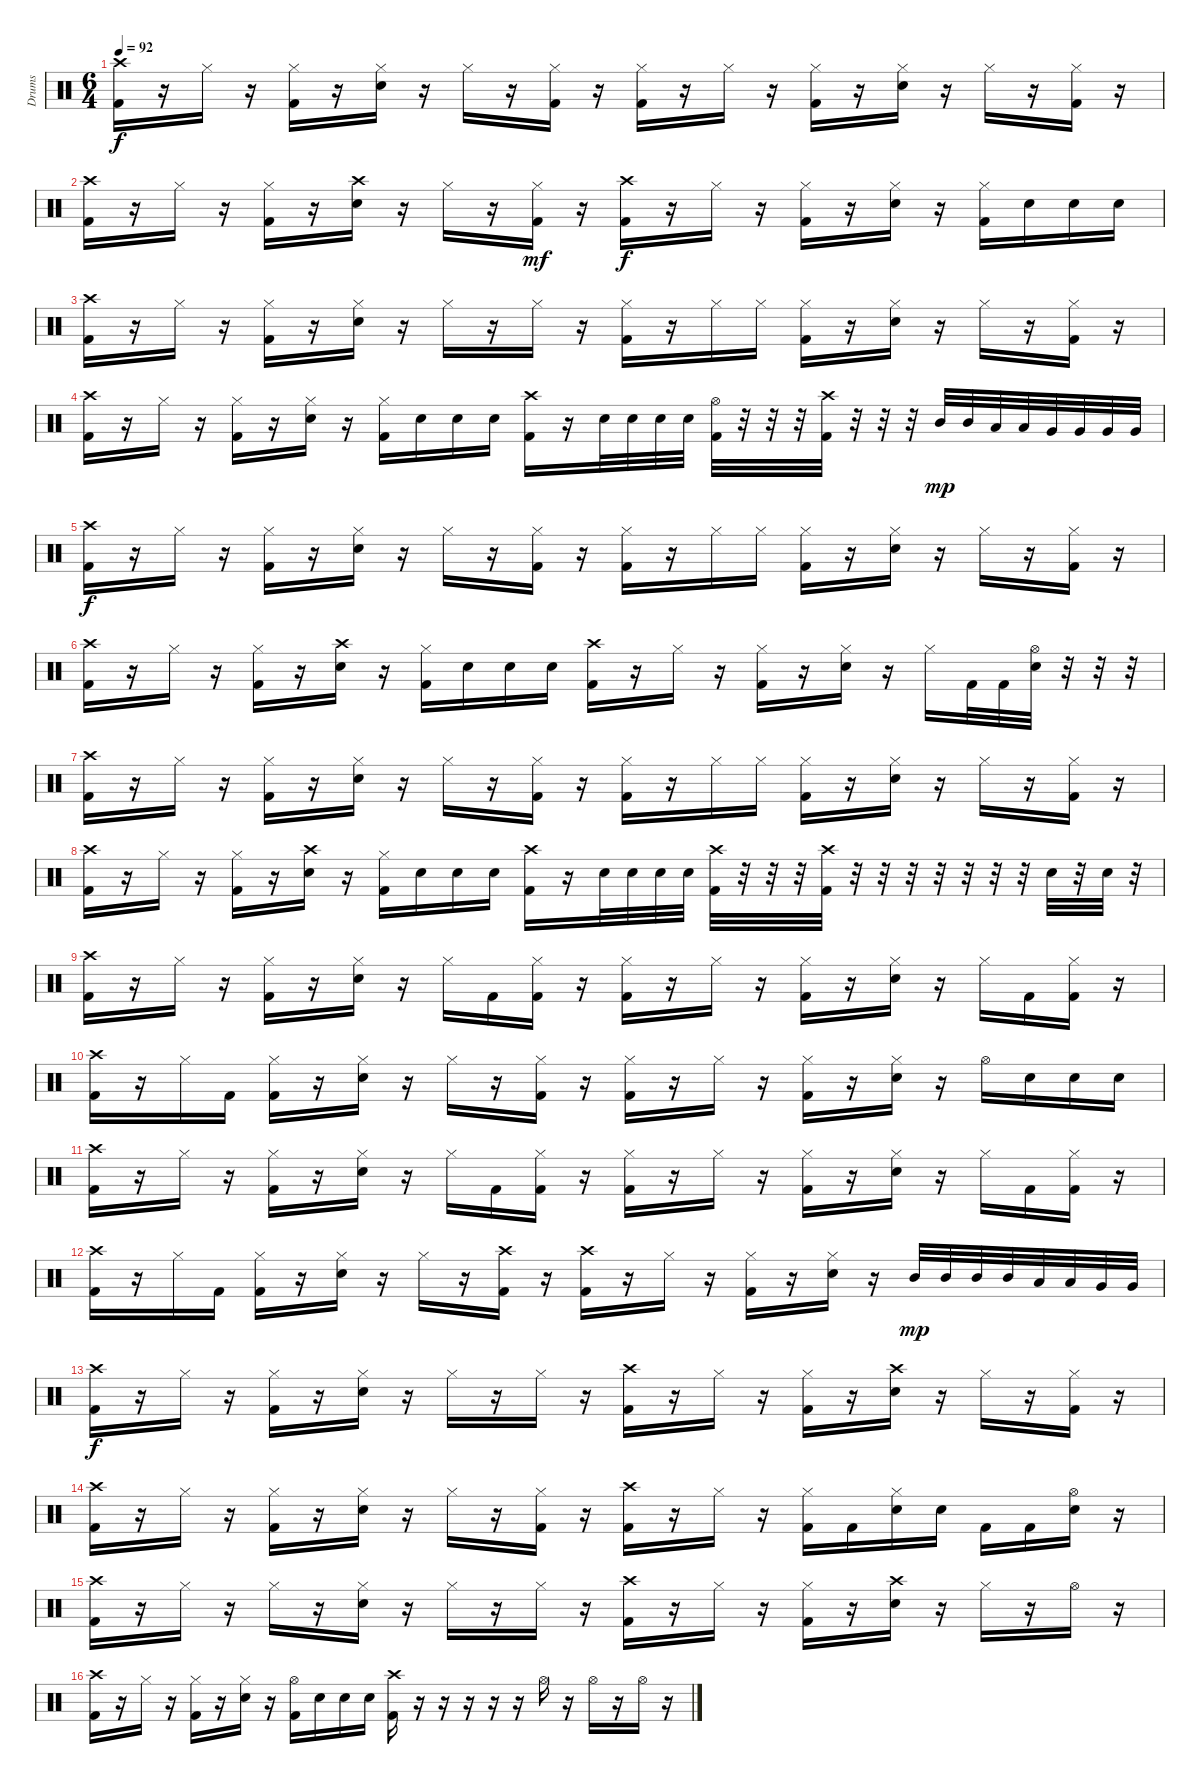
\track ("Drums" "Drums") {instrument percussion}
\staff {score}
\articulation defaults
\ts (6 4)
\tempo 92
\clef neutral
\ks c
("Crash high (hit)" "Kick (hit) 2").16{dy f} r.16 "Hi-Hat (closed)".16 r.16 ("Hi-Hat (closed)" "Kick (hit) 2").16 r.16 ("Hi-Hat (closed)" "Electric Snare (hit)").16 r.16 "Hi-Hat (closed)".16 r.16 ("Hi-Hat (closed)" "Kick (hit) 2").16 r.16 ("Hi-Hat (closed)" "Kick (hit) 2").16 r.16 "Hi-Hat (closed)".16 r.16 ("Hi-Hat (closed)" "Kick (hit) 2").16 r.16 ("Hi-Hat (closed)" "Electric Snare (hit)").16 r.16 "Hi-Hat (closed)".16 r.16 ("Hi-Hat (closed)" "Kick (hit) 2").16 r.16 |
("Crash high (hit)" "Kick (hit) 2").16 r.16 "Hi-Hat (closed)".16 r.16 ("Hi-Hat (closed)" "Kick (hit) 2").16 r.16 ("Crash high (hit)" "Electric Snare (hit)").16 r.16 "Hi-Hat (closed)".16 r.16 ("Hi-Hat (closed)" "Kick (hit) 2").16{dy mf} r.16 ("Crash high (hit)" "Kick (hit) 2").16{dy f} r.16 "Hi-Hat (closed)".16 r.16 ("Hi-Hat (closed)" "Kick (hit) 2").16 r.16 ("Hi-Hat (closed)" "Electric Snare (hit)").16 r.16 ("Hi-Hat (closed)" "Kick (hit) 2").16 "Electric Snare (hit)".16 "Electric Snare (hit)".16 "Electric Snare (hit)".16 |
("Crash high (hit)" "Kick (hit) 2").16 r.16 "Hi-Hat (closed)".16 r.16 ("Hi-Hat (closed)" "Kick (hit) 2").16 r.16 ("Hi-Hat (closed)" "Electric Snare (hit)").16 r.16 "Hi-Hat (closed)".16 r.16 "Hi-Hat (closed)".16 r.16 ("Hi-Hat (closed)" "Kick (hit) 2").16 r.16 "Hi-Hat (closed)".16 "Hi-Hat (closed)".16 ("Hi-Hat (closed)" "Kick (hit) 2").16 r.16 ("Hi-Hat (closed)" "Electric Snare (hit)").16 r.16 "Hi-Hat (closed)".16 r.16 ("Hi-Hat (closed)" "Kick (hit) 2").16 r.16 |
("Crash high (hit)" "Kick (hit) 2").16 r.16 "Hi-Hat (closed)".16 r.16 ("Hi-Hat (closed)" "Kick (hit) 2").16 r.16 ("Hi-Hat (closed)" "Electric Snare (hit)").16 r.16 ("Hi-Hat (closed)" "Kick (hit) 2").16 "Electric Snare (hit)".16 "Electric Snare (hit)".16 "Electric Snare (hit)".16 ("Crash high (hit)" "Kick (hit) 2").16 r.16 "Electric Snare (hit)".32 "Electric Snare (hit)".32 "Electric Snare (hit)".32 "Electric Snare (hit)".32 ("Hi-Hat (open)" "Kick (hit) 2").32 r.32 r.32 r.32 ("Crash high (hit)" "Kick (hit) 2").32 r.32 r.32 r.32 "Mid Tom (hit)".32{dy mp} "Mid Tom (hit)".32 "Low Tom (hit)".32 "Low Tom (hit)".32 "Very Low Tom (hit)".32 "Very Low Tom (hit)".32 "Very Low Tom (hit)".32 "Very Low Tom (hit)".32 |
("Crash high (hit)" "Kick (hit) 2").16{dy f} r.16 "Hi-Hat (closed)".16 r.16 ("Hi-Hat (closed)" "Kick (hit) 2").16 r.16 ("Hi-Hat (closed)" "Electric Snare (hit)").16 r.16 "Hi-Hat (closed)".16 r.16 ("Hi-Hat (closed)" "Kick (hit) 2").16 r.16 ("Hi-Hat (closed)" "Kick (hit) 2").16 r.16 "Hi-Hat (closed)".16 "Hi-Hat (closed)".16 ("Hi-Hat (closed)" "Kick (hit) 2").16 r.16 ("Hi-Hat (closed)" "Electric Snare (hit)").16 r.16 "Hi-Hat (closed)".16 r.16 ("Hi-Hat (closed)" "Kick (hit) 2").16 r.16 |
("Crash high (hit)" "Kick (hit) 2").16 r.16 "Hi-Hat (closed)".16 r.16 ("Hi-Hat (closed)" "Kick (hit) 2").16 r.16 ("Crash high (hit)" "Electric Snare (hit)").16 r.16 ("Hi-Hat (closed)" "Kick (hit) 2").16 "Electric Snare (hit)".16 "Electric Snare (hit)".16 "Electric Snare (hit)".16 ("Crash high (hit)" "Kick (hit) 2").16 r.16 "Hi-Hat (closed)".16 r.16 ("Hi-Hat (closed)" "Kick (hit) 2").16 r.16 ("Hi-Hat (closed)" "Electric Snare (hit)").16 r.16 "Hi-Hat (closed)".16 "Kick (hit) 2".32 "Kick (hit) 2".32 ("Hi-Hat (open)" "Electric Snare (hit)").32 r.32 r.32 r.32 |
("Crash high (hit)" "Kick (hit) 2").16 r.16 "Hi-Hat (closed)".16 r.16 ("Hi-Hat (closed)" "Kick (hit) 2").16 r.16 ("Hi-Hat (closed)" "Electric Snare (hit)").16 r.16 "Hi-Hat (closed)".16 r.16 ("Hi-Hat (closed)" "Kick (hit) 2").16 r.16 ("Hi-Hat (closed)" "Kick (hit) 2").16 r.16 "Hi-Hat (closed)".16 "Hi-Hat (closed)".16 ("Hi-Hat (closed)" "Kick (hit) 2").16 r.16 ("Hi-Hat (closed)" "Electric Snare (hit)").16 r.16 "Hi-Hat (closed)".16 r.16 ("Hi-Hat (closed)" "Kick (hit) 2").16 r.16 |
("Crash high (hit)" "Kick (hit) 2").16 r.16 "Hi-Hat (closed)".16 r.16 ("Hi-Hat (closed)" "Kick (hit) 2").16 r.16 ("Crash high (hit)" "Electric Snare (hit)").16 r.16 ("Hi-Hat (closed)" "Kick (hit) 2").16 "Electric Snare (hit)".16 "Electric Snare (hit)".16 "Electric Snare (hit)".16 ("Crash high (hit)" "Kick (hit) 2").16 r.16 "Electric Snare (hit)".32 "Electric Snare (hit)".32 "Electric Snare (hit)".32 "Electric Snare (hit)".32 ("Crash high (hit)" "Kick (hit) 2").32 r.32 r.32 r.32 ("Crash high (hit)" "Kick (hit) 2").32 r.32 r.32 r.32 r.32 r.32 r.32 r.32 "Electric Snare (hit)".32 r.32 "Electric Snare (hit)".32 r.32 |
("Crash high (hit)" "Kick (hit) 2").16 r.16 "Hi-Hat (closed)".16 r.16 ("Hi-Hat (closed)" "Kick (hit) 2").16 r.16 ("Hi-Hat (closed)" "Electric Snare (hit)").16 r.16 "Hi-Hat (closed)".16 "Kick (hit) 2".16 ("Hi-Hat (closed)" "Kick (hit) 2").16 r.16 ("Hi-Hat (closed)" "Kick (hit) 2").16 r.16 "Hi-Hat (closed)".16 r.16 ("Hi-Hat (closed)" "Kick (hit) 2").16 r.16 ("Hi-Hat (closed)" "Electric Snare (hit)").16 r.16 "Hi-Hat (closed)".16 "Kick (hit) 2".16 ("Hi-Hat (closed)" "Kick (hit) 2").16 r.16 |
("Crash high (hit)" "Kick (hit) 2").16 r.16 "Hi-Hat (closed)".16 "Kick (hit) 2".16 ("Hi-Hat (closed)" "Kick (hit) 2").16 r.16 ("Hi-Hat (closed)" "Electric Snare (hit)").16 r.16 "Hi-Hat (closed)".16 r.16 ("Hi-Hat (closed)" "Kick (hit) 2").16 r.16 ("Hi-Hat (closed)" "Kick (hit) 2").16 r.16 "Hi-Hat (closed)".16 r.16 ("Hi-Hat (closed)" "Kick (hit) 2").16 r.16 ("Hi-Hat (closed)" "Electric Snare (hit)").16 r.16 "Hi-Hat (open)".16 "Electric Snare (hit)".16 "Electric Snare (hit)".16 "Electric Snare (hit)".16 |
("Crash high (hit)" "Kick (hit) 2").16 r.16 "Hi-Hat (closed)".16 r.16 ("Hi-Hat (closed)" "Kick (hit) 2").16 r.16 ("Hi-Hat (closed)" "Electric Snare (hit)").16 r.16 "Hi-Hat (closed)".16 "Kick (hit) 2".16 ("Hi-Hat (closed)" "Kick (hit) 2").16 r.16 ("Hi-Hat (closed)" "Kick (hit) 2").16 r.16 "Hi-Hat (closed)".16 r.16 ("Hi-Hat (closed)" "Kick (hit) 2").16 r.16 ("Hi-Hat (closed)" "Electric Snare (hit)").16 r.16 "Hi-Hat (closed)".16 "Kick (hit) 2".16 ("Hi-Hat (closed)" "Kick (hit) 2").16 r.16 |
("Crash high (hit)" "Kick (hit) 2").16 r.16 "Hi-Hat (closed)".16 "Kick (hit) 2".16 ("Hi-Hat (closed)" "Kick (hit) 2").16 r.16 ("Hi-Hat (closed)" "Electric Snare (hit)").16 r.16 "Hi-Hat (closed)".16 r.16 ("Crash high (hit)" "Kick (hit) 2").16 r.16 ("Crash high (hit)" "Kick (hit) 2").16 r.16 "Hi-Hat (closed)".16 r.16 ("Hi-Hat (closed)" "Kick (hit) 2").16 r.16 ("Hi-Hat (closed)" "Electric Snare (hit)").16 r.16 "Mid Tom (hit)".32{dy mp} "Mid Tom (hit)".32 "Mid Tom (hit)".32 "Mid Tom (hit)".32 "Low Tom (hit)".32 "Low Tom (hit)".32 "Very Low Tom (hit)".32 "Very Low Tom (hit)".32 |
("Crash high (hit)" "Kick (hit) 2").16{dy f} r.16 "Hi-Hat (closed)".16 r.16 ("Hi-Hat (closed)" "Kick (hit) 2").16 r.16 ("Hi-Hat (closed)" "Electric Snare (hit)").16 r.16 "Hi-Hat (closed)".16 r.16 "Hi-Hat (closed)".16 r.16 ("Crash high (hit)" "Kick (hit) 2").16 r.16 "Hi-Hat (closed)".16 r.16 ("Hi-Hat (closed)" "Kick (hit) 2").16 r.16 ("Crash high (hit)" "Electric Snare (hit)").16 r.16 "Hi-Hat (closed)".16 r.16 ("Hi-Hat (closed)" "Kick (hit) 2").16 r.16 |
("Crash high (hit)" "Kick (hit) 2").16 r.16 "Hi-Hat (closed)".16 r.16 ("Hi-Hat (closed)" "Kick (hit) 2").16 r.16 ("Hi-Hat (closed)" "Electric Snare (hit)").16 r.16 "Hi-Hat (closed)".16 r.16 ("Hi-Hat (closed)" "Kick (hit) 2").16 r.16 ("Crash high (hit)" "Kick (hit) 2").16 r.16 "Hi-Hat (closed)".16 r.16 ("Hi-Hat (closed)" "Kick (hit) 2").16 "Kick (hit) 2".16 ("Hi-Hat (closed)" "Electric Snare (hit)").16 "Electric Snare (hit)".16 "Kick (hit) 2".16 "Kick (hit) 2".16 ("Hi-Hat (open)" "Electric Snare (hit)").16 r.16 |
("Crash high (hit)" "Kick (hit) 2").16 r.16 "Hi-Hat (closed)".16 r.16 "Hi-Hat (closed)".16 r.16 ("Hi-Hat (closed)" "Electric Snare (hit)").16 r.16 "Hi-Hat (closed)".16 r.16 "Hi-Hat (closed)".16 r.16 ("Crash high (hit)" "Kick (hit) 2").16 r.16 "Hi-Hat (closed)".16 r.16 ("Hi-Hat (closed)" "Kick (hit) 2").16 r.16 ("Crash high (hit)" "Electric Snare (hit)").16 r.16 "Hi-Hat (closed)".16 r.16 "Hi-Hat (open)".16 r.16 |
("Crash high (hit)" "Kick (hit) 2").16 r.16 "Hi-Hat (closed)".16 r.16 ("Hi-Hat (closed)" "Kick (hit) 2").16 r.16 ("Hi-Hat (closed)" "Electric Snare (hit)").16 r.16 ("Hi-Hat (open)" "Kick (hit) 2").16 "Electric Snare (hit)".16 "Electric Snare (hit)".16 "Electric Snare (hit)".16 ("Crash high (hit)" "Kick (hit) 2").16 r.16 r.16 r.16 r.16 r.16 "Hi-Hat (open)".16 r.16 "Hi-Hat (open)".16 r.16 "Hi-Hat (open)".16 r.16
